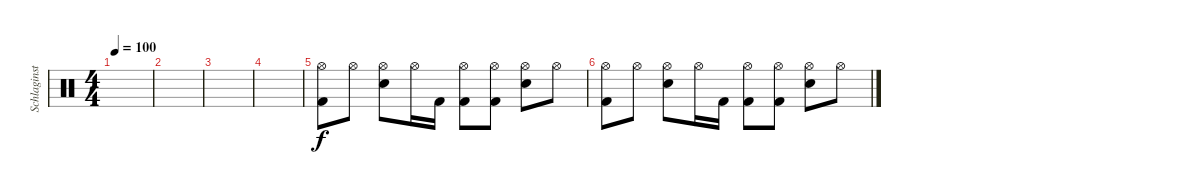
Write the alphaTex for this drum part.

\track ("Schlaginstrumente - Auswahl" "Schlaginst") {instrument percussion}
\staff {score}
\articulation defaults
\ts (4 4)
\tempo 100
\clef neutral
\ks c
|
|
|
|
("Hi-Hat (open)" "Kick (hit) 2").8 "Hi-Hat (open)".8 ("Hi-Hat (open)" "Snare (hit) 2").8 "Hi-Hat (open)".16 "Kick (hit) 2".16 ("Hi-Hat (open)" "Kick (hit) 2").8 ("Hi-Hat (open)" "Kick (hit) 2").8 ("Hi-Hat (open)" "Snare (hit) 2").8 "Hi-Hat (open)".8 |
("Hi-Hat (open)" "Kick (hit) 2").8 "Hi-Hat (open)".8 ("Hi-Hat (open)" "Snare (hit) 2").8 "Hi-Hat (open)".16 "Kick (hit) 2".16 ("Hi-Hat (open)" "Kick (hit) 2").8 ("Hi-Hat (open)" "Kick (hit) 2").8 ("Hi-Hat (open)" "Snare (hit) 2").8 "Hi-Hat (open)".8
